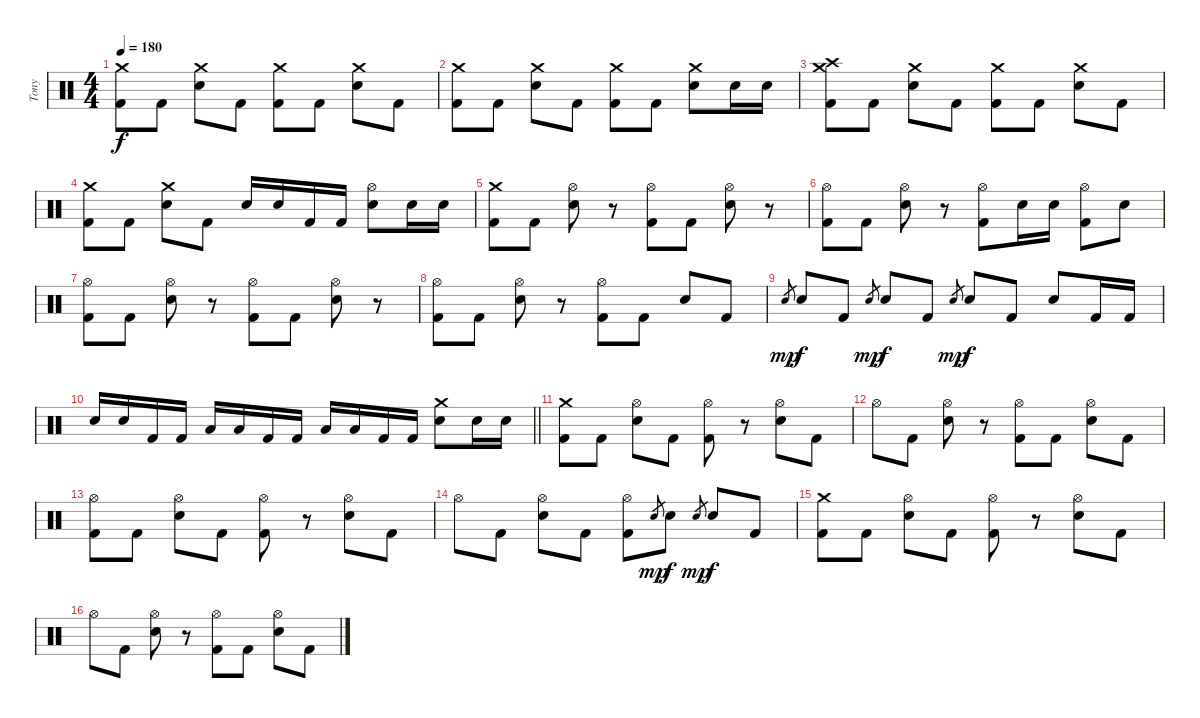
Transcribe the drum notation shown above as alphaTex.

\track ("Tony" "Tony") {instrument percussion}
\staff {score}
\articulation defaults
\ts (4 4)
\tempo 180
\clef neutral
\ks c
("Crash medium (hit)" "Kick (hit) 2").8{dy f} "Kick (hit) 2".8 ("Crash medium (hit)" "Electric Snare (hit)").8 "Kick (hit) 2".8 ("Crash medium (hit)" "Kick (hit) 2").8 "Kick (hit) 2".8 ("Crash medium (hit)" "Electric Snare (hit)").8 "Kick (hit) 2".8 |
("Crash medium (hit)" "Kick (hit) 2").8 "Kick (hit) 2".8 ("Crash medium (hit)" "Electric Snare (hit)").8 "Kick (hit) 2".8 ("Crash medium (hit)" "Kick (hit) 2").8 "Kick (hit) 2".8 ("Crash medium (hit)" "Electric Snare (hit)").8 "Electric Snare (hit)".16 "Electric Snare (hit)".16 |
("Crash medium (hit)" "Crash high (hit)" "Kick (hit) 2").8 "Kick (hit) 2".8 ("Crash medium (hit)" "Electric Snare (hit)").8 "Kick (hit) 2".8 ("Crash medium (hit)" "Kick (hit) 2").8 "Kick (hit) 2".8 ("Crash medium (hit)" "Electric Snare (hit)").8 "Kick (hit) 2".8 |
("Crash medium (hit)" "Kick (hit) 2").8 "Kick (hit) 2".8 ("Crash medium (hit)" "Electric Snare (hit)").8 "Kick (hit) 2".8 "Electric Snare (hit)".16 "Electric Snare (hit)".16 "Kick (hit) 2".16 "Kick (hit) 2".16 ("Hi-Hat (open)" "Electric Snare (hit)").8 "Electric Snare (hit)".16 "Electric Snare (hit)".16 |
("Crash medium (hit)" "Kick (hit) 2").8 "Kick (hit) 2".8 ("Hi-Hat (open)" "Electric Snare (hit)").8 r.8 ("Hi-Hat (open)" "Kick (hit) 2").8 "Kick (hit) 2".8 ("Hi-Hat (open)" "Electric Snare (hit)").8 r.8 |
("Hi-Hat (open)" "Kick (hit) 2").8 "Kick (hit) 2".8 ("Hi-Hat (open)" "Electric Snare (hit)").8 r.8 ("Hi-Hat (open)" "Kick (hit) 2").8 "Electric Snare (hit)".16 "Electric Snare (hit)".16 ("Hi-Hat (open)" "Kick (hit) 2").8 "Electric Snare (hit)".8 |
("Hi-Hat (open)" "Kick (hit) 2").8 "Kick (hit) 2".8 ("Hi-Hat (open)" "Electric Snare (hit)").8 r.8 ("Hi-Hat (open)" "Kick (hit) 2").8 "Kick (hit) 2".8 ("Hi-Hat (open)" "Electric Snare (hit)").8 r.8 |
("Hi-Hat (open)" "Kick (hit) 2").8 "Kick (hit) 2".8 ("Hi-Hat (open)" "Electric Snare (hit)").8 r.8 ("Hi-Hat (open)" "Kick (hit) 2").8 "Kick (hit) 2".8 "Electric Snare (hit)".8 "Kick (hit) 2".8 |
"Electric Snare (hit)".8{gr dy mp} "Electric Snare (hit)".8{dy f} "Kick (hit) 2".8 "Electric Snare (hit)".8{gr dy mp} "Electric Snare (hit)".8{dy f} "Kick (hit) 2".8 "Electric Snare (hit)".8{gr dy mp} "Electric Snare (hit)".8{dy f} "Kick (hit) 2".8 "Electric Snare (hit)".8 "Kick (hit) 2".16 "Kick (hit) 2".16 |
\barLineRight lightlight "Electric Snare (hit)".16 "Electric Snare (hit)".16 "Kick (hit) 2".16 "Kick (hit) 2".16 "Low Tom (hit)".16 "Low Tom (hit)".16 "Kick (hit) 2".16 "Kick (hit) 2".16 "Low Floor Tom (hit)".16 "Low Floor Tom (hit)".16 "Kick (hit) 2".16 "Kick (hit) 2".16
("Crash medium (hit)" "Electric Snare (hit)").8 "Electric Snare (hit)".16 "Electric Snare (hit)".16 |
\section ("" "")
("Crash medium (hit)" "Kick (hit) 2").8 "Kick (hit) 2".8 ("Hi-Hat (open)" "Electric Snare (hit)").8 "Kick (hit) 2".8 ("Hi-Hat (open)" "Kick (hit) 2").8 r.8 ("Hi-Hat (open)" "Electric Snare (hit)").8 "Kick (hit) 2".8 |
"Hi-Hat (open)".8 "Kick (hit) 2".8 ("Hi-Hat (open)" "Electric Snare (hit)").8 r.8 ("Hi-Hat (open)" "Kick (hit) 2").8 "Kick (hit) 2".8 ("Hi-Hat (open)" "Electric Snare (hit)").8 "Kick (hit) 2".8 |
("Hi-Hat (open)" "Kick (hit) 2").8 "Kick (hit) 2".8 ("Hi-Hat (open)" "Electric Snare (hit)").8 "Kick (hit) 2".8 ("Hi-Hat (open)" "Kick (hit) 2").8 r.8 ("Hi-Hat (open)" "Electric Snare (hit)").8 "Kick (hit) 2".8 |
"Hi-Hat (open)".8 "Kick (hit) 2".8 ("Hi-Hat (open)" "Electric Snare (hit)").8 "Kick (hit) 2".8 ("Hi-Hat (open)" "Kick (hit) 2").8 "Electric Snare (hit)".8{gr dy mp} "Electric Snare (hit)".8{dy f} "Electric Snare (hit)".8{gr dy mp} "Electric Snare (hit)".8{dy f} "Kick (hit) 2".8 |
("Crash medium (hit)" "Kick (hit) 2").8 "Kick (hit) 2".8 ("Hi-Hat (open)" "Electric Snare (hit)").8 "Kick (hit) 2".8 ("Hi-Hat (open)" "Kick (hit) 2").8 r.8 ("Hi-Hat (open)" "Electric Snare (hit)").8 "Kick (hit) 2".8 |
"Hi-Hat (open)".8 "Kick (hit) 2".8 ("Hi-Hat (open)" "Electric Snare (hit)").8 r.8 ("Hi-Hat (open)" "Kick (hit) 2").8 "Kick (hit) 2".8 ("Hi-Hat (open)" "Electric Snare (hit)").8 "Kick (hit) 2".8
